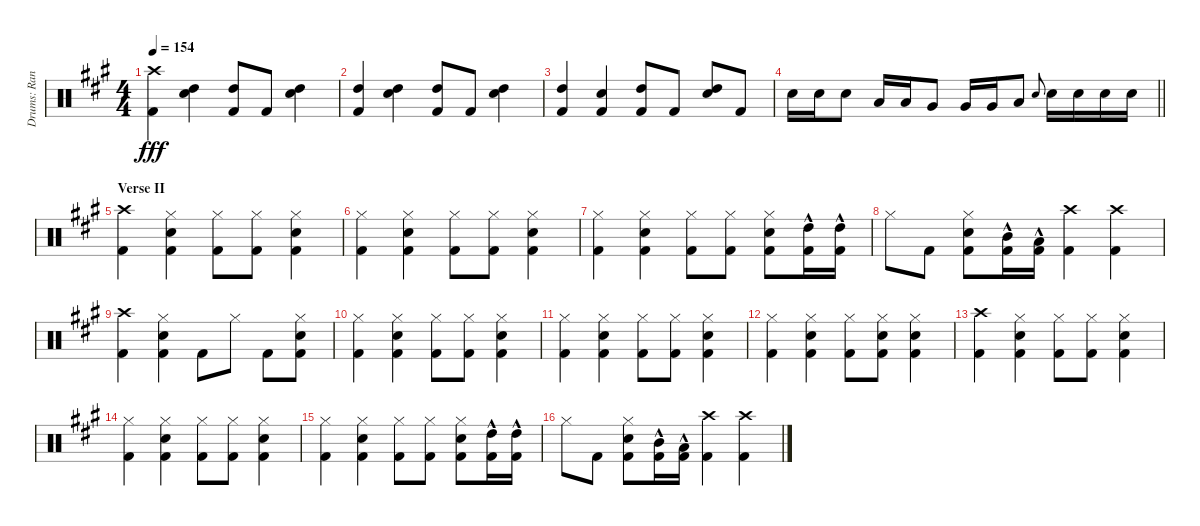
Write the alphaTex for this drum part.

\track ("Drums: Randy" "Drums: Ran") {instrument percussion}
\staff {score}
\articulation defaults
\ts (4 4)
\tempo 154
\clef neutral
\ks a
("Crash high (hit)" "Kick (hit) 2").4{dy fff} ("Snare (hit) 2" "High Tom (hit)").4 ("High Tom (hit)" "Kick (hit) 2").8 "Kick (hit) 2".8 ("Snare (hit) 2" "High Tom (hit)").4 |
("High Tom (hit)" "Kick (hit) 2").4 ("Snare (hit) 2" "High Tom (hit)").4 ("High Tom (hit)" "Kick (hit) 2").8 "Kick (hit) 2".8 ("Snare (hit) 2" "High Tom (hit)").4 |
("High Tom (hit)" "Kick (hit) 2").4 ("Snare (hit) 2" "Kick (hit) 2").4 ("High Tom (hit)" "Kick (hit) 2").8 "Kick (hit) 2".8 ("Snare (hit) 2" "High Tom (hit)").8 "Kick (hit) 2".8 |
\barLineRight lightlight "Snare (hit) 2".16 "Snare (hit) 2".16 "Snare (hit) 2".8 "Low Tom (hit)".16 "Low Tom (hit)".16 "Very Low Tom (hit)".8 "Very Low Tom (hit)".16 "Very Low Tom (hit)".16 "Low Floor Tom (hit)".8 "Snare (hit) 2".8{gr onbeat} "Snare (hit) 2".16 "Snare (hit) 2".16 "Snare (hit) 2".16 "Snare (hit) 2".16
|
\section ("" "Verse II")
("Crash high (hit)" "Kick (hit) 2").4 ("Hi-Hat (closed)" "Snare (hit) 2" "Kick (hit) 2").4 ("Hi-Hat (closed)" "Kick (hit) 2").8 ("Hi-Hat (closed)" "Kick (hit) 2").8 ("Hi-Hat (closed)" "Snare (hit) 2" "Kick (hit) 2").4 |
("Hi-Hat (closed)" "Kick (hit) 2").4 ("Hi-Hat (closed)" "Snare (hit) 2" "Kick (hit) 2").4 ("Hi-Hat (closed)" "Kick (hit) 2").8 ("Hi-Hat (closed)" "Kick (hit) 2").8 ("Hi-Hat (closed)" "Snare (hit) 2" "Kick (hit) 2").4 |
("Hi-Hat (closed)" "Kick (hit) 2").4 ("Hi-Hat (closed)" "Snare (hit) 2" "Kick (hit) 2").4 ("Hi-Hat (closed)" "Kick (hit) 2").8 ("Hi-Hat (closed)" "Kick (hit) 2").8 ("Hi-Hat (closed)" "Snare (hit) 2" "Kick (hit) 2").8 ("High Tom (hit)"{hac} "Kick (hit) 2"{hac}).16 ("High Tom (hit)"{hac} "Kick (hit) 2"{hac}).16 |
"Hi-Hat (closed)".8 "Kick (hit) 2".8 ("Hi-Hat (closed)" "Snare (hit) 2" "Kick (hit) 2").8 ("Mid Tom (hit)"{hac} "Kick (hit) 2"{hac}).16 ("Low Tom (hit)"{hac} "Kick (hit) 2"{hac}).16 ("Crash high (hit)" "Kick (hit) 2").4 ("Crash high (hit)" "Kick (hit) 2").4 |
("Crash high (hit)" "Kick (hit) 2").4 ("Hi-Hat (closed)" "Snare (hit) 2" "Kick (hit) 2").4 "Kick (hit) 2".8 "Hi-Hat (closed)".8 "Kick (hit) 2".8 ("Hi-Hat (closed)" "Snare (hit) 2" "Kick (hit) 2").8 |
("Hi-Hat (closed)" "Kick (hit) 2").4 ("Hi-Hat (closed)" "Snare (hit) 2" "Kick (hit) 2").4 ("Hi-Hat (closed)" "Kick (hit) 2").8 ("Hi-Hat (closed)" "Kick (hit) 2").8 ("Hi-Hat (closed)" "Snare (hit) 2" "Kick (hit) 2").4 |
("Hi-Hat (closed)" "Kick (hit) 2").4 ("Hi-Hat (closed)" "Snare (hit) 2" "Kick (hit) 2").4 ("Hi-Hat (closed)" "Kick (hit) 2").8 ("Hi-Hat (closed)" "Kick (hit) 2").8 ("Hi-Hat (closed)" "Snare (hit) 2" "Kick (hit) 2").4 |
("Hi-Hat (closed)" "Kick (hit) 2").4 ("Hi-Hat (closed)" "Snare (hit) 2" "Kick (hit) 2").4 ("Hi-Hat (closed)" "Kick (hit) 2").8 ("Hi-Hat (closed)" "Snare (hit) 2" "Kick (hit) 2").8 ("Hi-Hat (closed)" "Snare (hit) 2" "Kick (hit) 2").4 |
("Crash high (hit)" "Kick (hit) 2").4 ("Hi-Hat (closed)" "Snare (hit) 2" "Kick (hit) 2").4 ("Hi-Hat (closed)" "Kick (hit) 2").8 ("Hi-Hat (closed)" "Kick (hit) 2").8 ("Hi-Hat (closed)" "Snare (hit) 2" "Kick (hit) 2").4 |
("Hi-Hat (closed)" "Kick (hit) 2").4 ("Hi-Hat (closed)" "Snare (hit) 2" "Kick (hit) 2").4 ("Hi-Hat (closed)" "Kick (hit) 2").8 ("Hi-Hat (closed)" "Kick (hit) 2").8 ("Hi-Hat (closed)" "Snare (hit) 2" "Kick (hit) 2").4 |
("Hi-Hat (closed)" "Kick (hit) 2").4 ("Hi-Hat (closed)" "Snare (hit) 2" "Kick (hit) 2").4 ("Hi-Hat (closed)" "Kick (hit) 2").8 ("Hi-Hat (closed)" "Kick (hit) 2").8 ("Hi-Hat (closed)" "Snare (hit) 2" "Kick (hit) 2").8 ("High Tom (hit)"{hac} "Kick (hit) 2"{hac}).16 ("High Tom (hit)"{hac} "Kick (hit) 2"{hac}).16 |
"Hi-Hat (closed)".8 "Kick (hit) 2".8 ("Hi-Hat (closed)" "Snare (hit) 2" "Kick (hit) 2").8 ("Mid Tom (hit)"{hac} "Kick (hit) 2"{hac}).16 ("Low Tom (hit)"{hac} "Kick (hit) 2"{hac}).16 ("Crash high (hit)" "Kick (hit) 2").4 ("Crash high (hit)" "Kick (hit) 2").4
